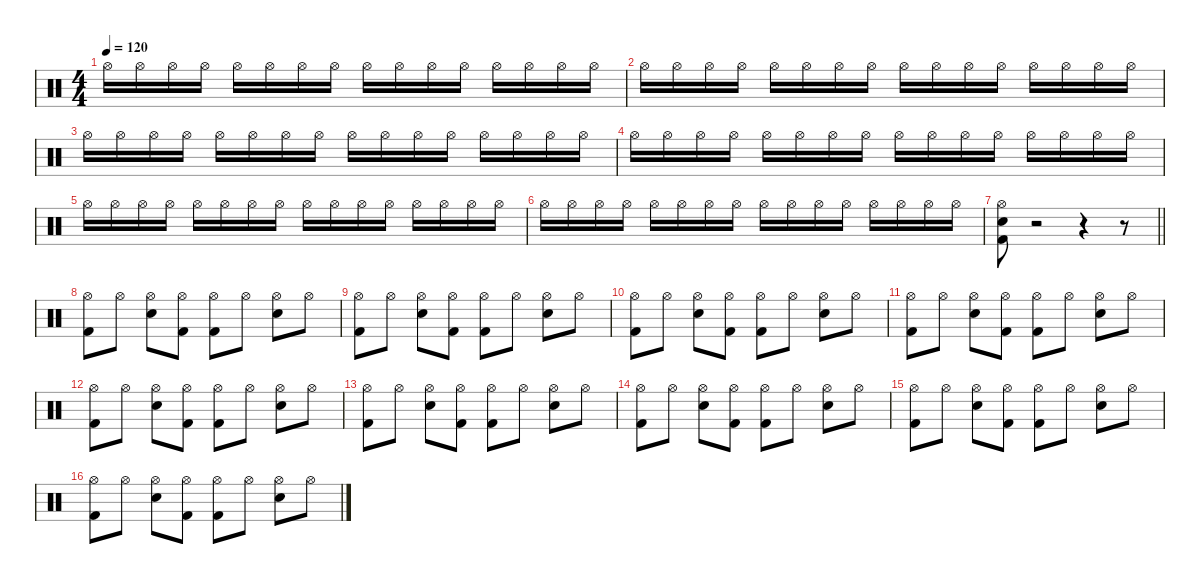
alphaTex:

\defaultSystemsLayout 4
\hideDynamics
\bracketExtendMode nobrackets
\singleTrackTrackNamePolicy hidden
\multiTrackTrackNamePolicy hidden
\firstSystemTrackNameMode fullname
\firstSystemTrackNameOrientation horizontal
\otherSystemsTrackNameOrientation horizontal
\track ("Percussion" "drm.") {instrument percussion}
\staff {score}
\articulation defaults
\ts (4 4)
\tempo 120
\clef neutral
\ks c "Hi-Hat (open)".16{dy f beam Down} "Hi-Hat (open)".16{beam Down} "Hi-Hat (open)".16{beam Down} "Hi-Hat (open)".16{beam Down} "Hi-Hat (open)".16{beam Down} "Hi-Hat (open)".16{beam Down} "Hi-Hat (open)".16{beam Down} "Hi-Hat (open)".16{beam Down} "Hi-Hat (open)".16{beam Down} "Hi-Hat (open)".16{beam Down} "Hi-Hat (open)".16{beam Down} "Hi-Hat (open)".16{beam Down} "Hi-Hat (open)".16{beam Down} "Hi-Hat (open)".16{beam Down} "Hi-Hat (open)".16{beam Down} "Hi-Hat (open)".16{beam Down}
|
"Hi-Hat (open)".16{beam Down} "Hi-Hat (open)".16{beam Down} "Hi-Hat (open)".16{beam Down} "Hi-Hat (open)".16{beam Down} "Hi-Hat (open)".16{beam Down} "Hi-Hat (open)".16{beam Down} "Hi-Hat (open)".16{beam Down} "Hi-Hat (open)".16{beam Down} "Hi-Hat (open)".16{beam Down} "Hi-Hat (open)".16{beam Down} "Hi-Hat (open)".16{beam Down} "Hi-Hat (open)".16{beam Down} "Hi-Hat (open)".16{beam Down} "Hi-Hat (open)".16{beam Down} "Hi-Hat (open)".16{beam Down} "Hi-Hat (open)".16{beam Down} |
"Hi-Hat (open)".16{beam Down} "Hi-Hat (open)".16{beam Down} "Hi-Hat (open)".16{beam Down} "Hi-Hat (open)".16{beam Down} "Hi-Hat (open)".16{beam Down} "Hi-Hat (open)".16{beam Down} "Hi-Hat (open)".16{beam Down} "Hi-Hat (open)".16{beam Down} "Hi-Hat (open)".16{beam Down} "Hi-Hat (open)".16{beam Down} "Hi-Hat (open)".16{beam Down} "Hi-Hat (open)".16{beam Down} "Hi-Hat (open)".16{beam Down} "Hi-Hat (open)".16{beam Down} "Hi-Hat (open)".16{beam Down} "Hi-Hat (open)".16{beam Down} |
"Hi-Hat (open)".16{beam Down} "Hi-Hat (open)".16{beam Down} "Hi-Hat (open)".16{beam Down} "Hi-Hat (open)".16{beam Down} "Hi-Hat (open)".16{beam Down} "Hi-Hat (open)".16{beam Down} "Hi-Hat (open)".16{beam Down} "Hi-Hat (open)".16{beam Down} "Hi-Hat (open)".16{beam Down} "Hi-Hat (open)".16{beam Down} "Hi-Hat (open)".16{beam Down} "Hi-Hat (open)".16{beam Down} "Hi-Hat (open)".16{beam Down} "Hi-Hat (open)".16{beam Down} "Hi-Hat (open)".16{beam Down} "Hi-Hat (open)".16{beam Down} |
"Hi-Hat (open)".16{beam Down} "Hi-Hat (open)".16{beam Down} "Hi-Hat (open)".16{beam Down} "Hi-Hat (open)".16{beam Down} "Hi-Hat (open)".16{beam Down} "Hi-Hat (open)".16{beam Down} "Hi-Hat (open)".16{beam Down} "Hi-Hat (open)".16{beam Down} "Hi-Hat (open)".16{beam Down} "Hi-Hat (open)".16{beam Down} "Hi-Hat (open)".16{beam Down} "Hi-Hat (open)".16{beam Down} "Hi-Hat (open)".16{beam Down} "Hi-Hat (open)".16{beam Down} "Hi-Hat (open)".16{beam Down} "Hi-Hat (open)".16{beam Down} |
"Hi-Hat (open)".16{beam Down} "Hi-Hat (open)".16{beam Down} "Hi-Hat (open)".16{beam Down} "Hi-Hat (open)".16{beam Down} "Hi-Hat (open)".16{beam Down} "Hi-Hat (open)".16{beam Down} "Hi-Hat (open)".16{beam Down} "Hi-Hat (open)".16{beam Down} "Hi-Hat (open)".16{beam Down} "Hi-Hat (open)".16{beam Down} "Hi-Hat (open)".16{beam Down} "Hi-Hat (open)".16{beam Down} "Hi-Hat (open)".16{beam Down} "Hi-Hat (open)".16{beam Down} "Hi-Hat (open)".16{beam Down} "Hi-Hat (open)".16{beam Down} |
\barLineRight lightlight
("Hi-Hat (open)" "Snare (hit) 2" "Kick (hit) 2").8{beam Down} r.2{beam Down} r.4{beam Down} r.8{beam Down} |
("Hi-Hat (open)" "Kick (hit) 2").8{beam Down} "Hi-Hat (open)".8{beam Down} ("Hi-Hat (open)" "Snare (hit) 2").8{beam Down} ("Hi-Hat (open)" "Kick (hit) 2").8{beam Down} ("Hi-Hat (open)" "Kick (hit) 2").8{beam Down} "Hi-Hat (open)".8{beam Down} ("Hi-Hat (open)" "Snare (hit) 2").8{beam Down} "Hi-Hat (open)".8{beam Down} |
("Hi-Hat (open)" "Kick (hit) 2").8{beam Down} "Hi-Hat (open)".8{beam Down} ("Hi-Hat (open)" "Snare (hit) 2").8{beam Down} ("Hi-Hat (open)" "Kick (hit) 2").8{beam Down} ("Hi-Hat (open)" "Kick (hit) 2").8{beam Down} "Hi-Hat (open)".8{beam Down} ("Hi-Hat (open)" "Snare (hit) 2").8{beam Down} "Hi-Hat (open)".8{beam Down} |
("Hi-Hat (open)" "Kick (hit) 2").8{beam Down} "Hi-Hat (open)".8{beam Down} ("Hi-Hat (open)" "Snare (hit) 2").8{beam Down} ("Hi-Hat (open)" "Kick (hit) 2").8{beam Down} ("Hi-Hat (open)" "Kick (hit) 2").8{beam Down} "Hi-Hat (open)".8{beam Down} ("Hi-Hat (open)" "Snare (hit) 2").8{beam Down} "Hi-Hat (open)".8{beam Down} |
("Hi-Hat (open)" "Kick (hit) 2").8{beam Down} "Hi-Hat (open)".8{beam Down} ("Hi-Hat (open)" "Snare (hit) 2").8{beam Down} ("Hi-Hat (open)" "Kick (hit) 2").8{beam Down} ("Hi-Hat (open)" "Kick (hit) 2").8{beam Down} "Hi-Hat (open)".8{beam Down} ("Hi-Hat (open)" "Snare (hit) 2").8{beam Down} "Hi-Hat (open)".8{beam Down} |
("Hi-Hat (open)" "Kick (hit) 2").8{beam Down} "Hi-Hat (open)".8{beam Down} ("Hi-Hat (open)" "Snare (hit) 2").8{beam Down} ("Hi-Hat (open)" "Kick (hit) 2").8{beam Down} ("Hi-Hat (open)" "Kick (hit) 2").8{beam Down} "Hi-Hat (open)".8{beam Down} ("Hi-Hat (open)" "Snare (hit) 2").8{beam Down} "Hi-Hat (open)".8{beam Down} |
("Hi-Hat (open)" "Kick (hit) 2").8{beam Down} "Hi-Hat (open)".8{beam Down} ("Hi-Hat (open)" "Snare (hit) 2").8{beam Down} ("Hi-Hat (open)" "Kick (hit) 2").8{beam Down} ("Hi-Hat (open)" "Kick (hit) 2").8{beam Down} "Hi-Hat (open)".8{beam Down} ("Hi-Hat (open)" "Snare (hit) 2").8{beam Down} "Hi-Hat (open)".8{beam Down} |
("Hi-Hat (open)" "Kick (hit) 2").8{beam Down} "Hi-Hat (open)".8{beam Down} ("Hi-Hat (open)" "Snare (hit) 2").8{beam Down} ("Hi-Hat (open)" "Kick (hit) 2").8{beam Down} ("Hi-Hat (open)" "Kick (hit) 2").8{beam Down} "Hi-Hat (open)".8{beam Down} ("Hi-Hat (open)" "Snare (hit) 2").8{beam Down} "Hi-Hat (open)".8{beam Down} |
("Hi-Hat (open)" "Kick (hit) 2").8{beam Down} "Hi-Hat (open)".8{beam Down} ("Hi-Hat (open)" "Snare (hit) 2").8{beam Down} ("Hi-Hat (open)" "Kick (hit) 2").8{beam Down} ("Hi-Hat (open)" "Kick (hit) 2").8{beam Down} "Hi-Hat (open)".8{beam Down} ("Hi-Hat (open)" "Snare (hit) 2").8{beam Down} "Hi-Hat (open)".8{beam Down} |
("Hi-Hat (open)" "Kick (hit) 2").8{beam Down} "Hi-Hat (open)".8{beam Down} ("Hi-Hat (open)" "Snare (hit) 2").8{beam Down} ("Hi-Hat (open)" "Kick (hit) 2").8{beam Down} ("Hi-Hat (open)" "Kick (hit) 2").8{beam Down} "Hi-Hat (open)".8{beam Down} ("Hi-Hat (open)" "Snare (hit) 2").8{beam Down} "Hi-Hat (open)".8{beam Down}
